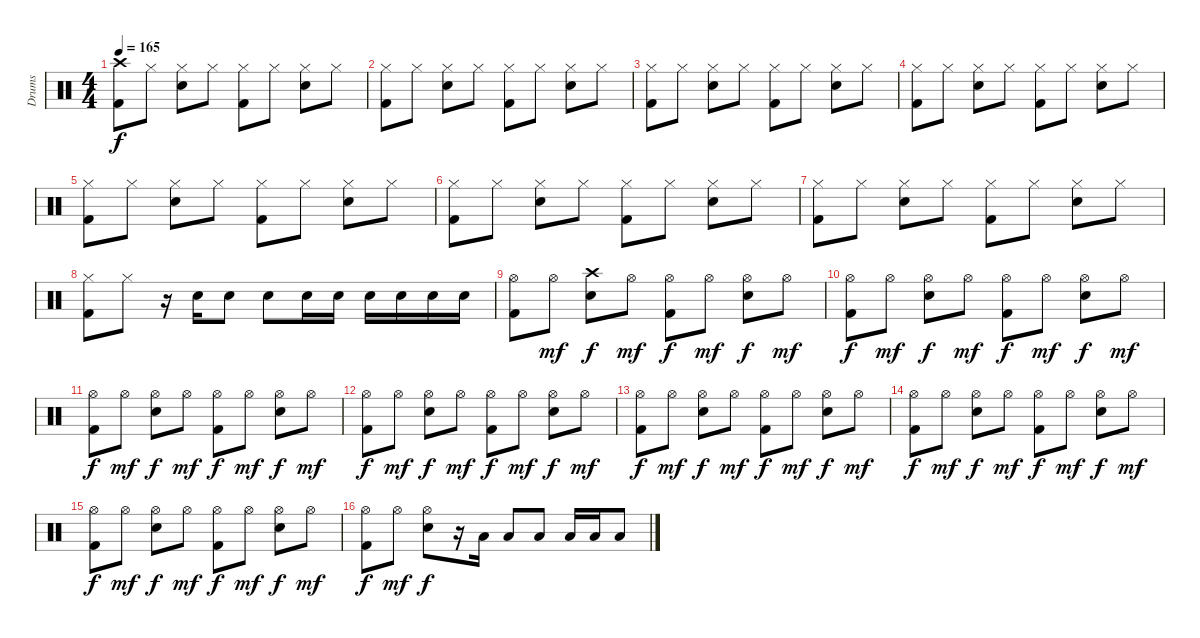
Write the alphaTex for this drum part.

\track ("Drums" "Drums") {instrument percussion}
\staff {score}
\articulation defaults
\ts (4 4)
\tempo 165
\clef neutral
\ks c
("Crash high (hit)" "Kick (hit) 2").8{dy f} "Hi-Hat (closed)".8 ("Hi-Hat (closed)" "Electric Snare (hit)").8 "Hi-Hat (closed)".8 ("Hi-Hat (closed)" "Kick (hit) 2").8 "Hi-Hat (closed)".8 ("Hi-Hat (closed)" "Electric Snare (hit)").8 "Hi-Hat (closed)".8 |
("Hi-Hat (closed)" "Kick (hit) 2").8 "Hi-Hat (closed)".8 ("Hi-Hat (closed)" "Electric Snare (hit)").8 "Hi-Hat (closed)".8 ("Hi-Hat (closed)" "Kick (hit) 2").8 "Hi-Hat (closed)".8 ("Hi-Hat (closed)" "Electric Snare (hit)").8 "Hi-Hat (closed)".8 |
("Hi-Hat (closed)" "Kick (hit) 2").8 "Hi-Hat (closed)".8 ("Hi-Hat (closed)" "Electric Snare (hit)").8 "Hi-Hat (closed)".8 ("Hi-Hat (closed)" "Kick (hit) 2").8 "Hi-Hat (closed)".8 ("Hi-Hat (closed)" "Electric Snare (hit)").8 "Hi-Hat (closed)".8 |
("Hi-Hat (closed)" "Kick (hit) 2").8 "Hi-Hat (closed)".8 ("Hi-Hat (closed)" "Electric Snare (hit)").8 "Hi-Hat (closed)".8 ("Hi-Hat (closed)" "Kick (hit) 2").8 "Hi-Hat (closed)".8 ("Hi-Hat (closed)" "Electric Snare (hit)").8 "Hi-Hat (closed)".8 |
("Hi-Hat (closed)" "Kick (hit) 2").8 "Hi-Hat (closed)".8 ("Hi-Hat (closed)" "Electric Snare (hit)").8 "Hi-Hat (closed)".8 ("Hi-Hat (closed)" "Kick (hit) 2").8 "Hi-Hat (closed)".8 ("Hi-Hat (closed)" "Electric Snare (hit)").8 "Hi-Hat (closed)".8 |
("Hi-Hat (closed)" "Kick (hit) 2").8 "Hi-Hat (closed)".8 ("Hi-Hat (closed)" "Electric Snare (hit)").8 "Hi-Hat (closed)".8 ("Hi-Hat (closed)" "Kick (hit) 2").8 "Hi-Hat (closed)".8 ("Hi-Hat (closed)" "Electric Snare (hit)").8 "Hi-Hat (closed)".8 |
("Hi-Hat (closed)" "Kick (hit) 2").8 "Hi-Hat (closed)".8 ("Hi-Hat (closed)" "Electric Snare (hit)").8 "Hi-Hat (closed)".8 ("Hi-Hat (closed)" "Kick (hit) 2").8 "Hi-Hat (closed)".8 ("Hi-Hat (closed)" "Electric Snare (hit)").8 "Hi-Hat (closed)".8 |
("Hi-Hat (closed)" "Kick (hit) 2").8 "Hi-Hat (closed)".8 r.16 "Electric Snare (hit)".16 "Electric Snare (hit)".8 "Electric Snare (hit)".8 "Electric Snare (hit)".16 "Electric Snare (hit)".16 "Electric Snare (hit)".16 "Electric Snare (hit)".16 "Electric Snare (hit)".16 "Electric Snare (hit)".16 |
("Hi-Hat (open)" "Kick (hit) 2").8 "Hi-Hat (open)".8{dy mf} ("Crash high (hit)" "Electric Snare (hit)").8{dy f} "Hi-Hat (open)".8{dy mf} ("Hi-Hat (open)" "Kick (hit) 2").8{dy f} "Hi-Hat (open)".8{dy mf} ("Hi-Hat (open)" "Electric Snare (hit)").8{dy f} "Hi-Hat (open)".8{dy mf} |
("Hi-Hat (open)" "Kick (hit) 2").8{dy f} "Hi-Hat (open)".8{dy mf} ("Hi-Hat (open)" "Electric Snare (hit)").8{dy f} "Hi-Hat (open)".8{dy mf} ("Hi-Hat (open)" "Kick (hit) 2").8{dy f} "Hi-Hat (open)".8{dy mf} ("Hi-Hat (open)" "Electric Snare (hit)").8{dy f} "Hi-Hat (open)".8{dy mf} |
("Hi-Hat (open)" "Kick (hit) 2").8{dy f} "Hi-Hat (open)".8{dy mf} ("Hi-Hat (open)" "Electric Snare (hit)").8{dy f} "Hi-Hat (open)".8{dy mf} ("Hi-Hat (open)" "Kick (hit) 2").8{dy f} "Hi-Hat (open)".8{dy mf} ("Hi-Hat (open)" "Electric Snare (hit)").8{dy f} "Hi-Hat (open)".8{dy mf} |
("Hi-Hat (open)" "Kick (hit) 2").8{dy f} "Hi-Hat (open)".8{dy mf} ("Hi-Hat (open)" "Electric Snare (hit)").8{dy f} "Hi-Hat (open)".8{dy mf} ("Hi-Hat (open)" "Kick (hit) 2").8{dy f} "Hi-Hat (open)".8{dy mf} ("Hi-Hat (open)" "Electric Snare (hit)").8{dy f} "Hi-Hat (open)".8{dy mf} |
("Hi-Hat (open)" "Kick (hit) 2").8{dy f} "Hi-Hat (open)".8{dy mf} ("Hi-Hat (open)" "Electric Snare (hit)").8{dy f} "Hi-Hat (open)".8{dy mf} ("Hi-Hat (open)" "Kick (hit) 2").8{dy f} "Hi-Hat (open)".8{dy mf} ("Hi-Hat (open)" "Electric Snare (hit)").8{dy f} "Hi-Hat (open)".8{dy mf} |
("Hi-Hat (open)" "Kick (hit) 2").8{dy f} "Hi-Hat (open)".8{dy mf} ("Hi-Hat (open)" "Electric Snare (hit)").8{dy f} "Hi-Hat (open)".8{dy mf} ("Hi-Hat (open)" "Kick (hit) 2").8{dy f} "Hi-Hat (open)".8{dy mf} ("Hi-Hat (open)" "Electric Snare (hit)").8{dy f} "Hi-Hat (open)".8{dy mf} |
("Hi-Hat (open)" "Kick (hit) 2").8{dy f} "Hi-Hat (open)".8{dy mf} ("Hi-Hat (open)" "Electric Snare (hit)").8{dy f} "Hi-Hat (open)".8{dy mf} ("Hi-Hat (open)" "Kick (hit) 2").8{dy f} "Hi-Hat (open)".8{dy mf} ("Hi-Hat (open)" "Electric Snare (hit)").8{dy f} "Hi-Hat (open)".8{dy mf} |
("Hi-Hat (open)" "Kick (hit) 2").8{dy f} "Hi-Hat (open)".8{dy mf} ("Hi-Hat (open)" "Electric Snare (hit)").8{dy f} r.16 "Low Floor Tom (hit)".16 "Low Floor Tom (hit)".8 "Low Floor Tom (hit)".8 "Low Floor Tom (hit)".16 "Low Floor Tom (hit)".16 "Low Floor Tom (hit)".8
